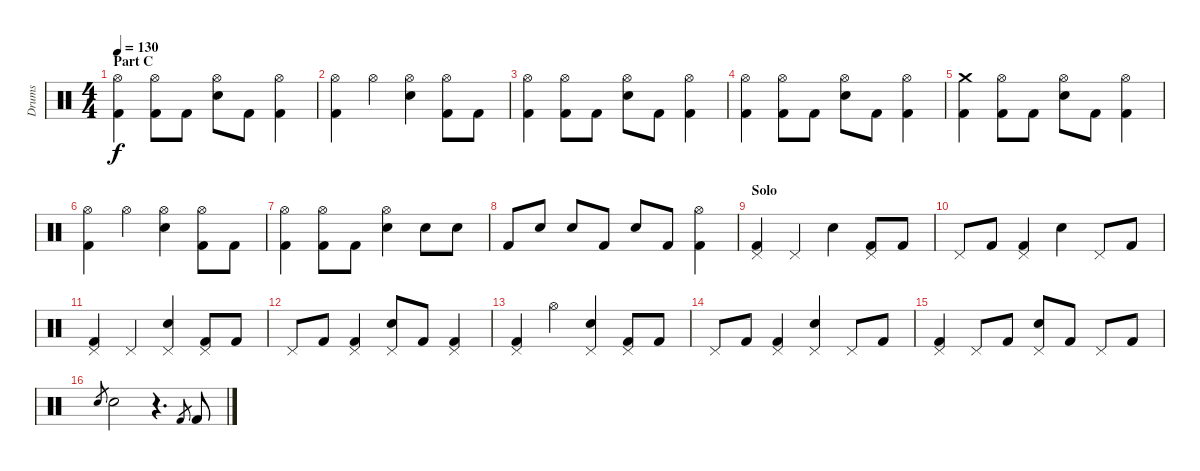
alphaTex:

\track ("Drums" "Drums") {instrument percussion}
\staff {score}
\articulation defaults
\ts (4 4)
\section ("" "Part C")
\tempo 130
\clef neutral
\ks c
("Hi-Hat (open)" "Kick (hit) 2").4{dy f} ("Hi-Hat (open)" "Kick (hit) 2").8 "Kick (hit) 2".8 ("Hi-Hat (open)" "Electric Snare (hit)").8 "Kick (hit) 2".8 ("Hi-Hat (open)" "Kick (hit) 2").4 |
("Hi-Hat (open)" "Kick (hit) 2").4 "Hi-Hat (open)".4 ("Hi-Hat (open)" "Electric Snare (hit)").4 ("Hi-Hat (open)" "Kick (hit) 2").8 "Kick (hit) 2".8 |
("Hi-Hat (open)" "Kick (hit) 2").4 ("Hi-Hat (open)" "Kick (hit) 2").8 "Kick (hit) 2".8 ("Hi-Hat (open)" "Electric Snare (hit)").8 "Kick (hit) 2".8 ("Hi-Hat (open)" "Kick (hit) 2").4 |
("Hi-Hat (open)" "Kick (hit) 2").4 ("Hi-Hat (open)" "Kick (hit) 2").8 "Kick (hit) 2".8 ("Hi-Hat (open)" "Electric Snare (hit)").8 "Kick (hit) 2".8 ("Hi-Hat (open)" "Kick (hit) 2").4 |
("Crash medium (hit)" "Kick (hit) 2").4 ("Hi-Hat (open)" "Kick (hit) 2").8 "Kick (hit) 2".8 ("Hi-Hat (open)" "Electric Snare (hit)").8 "Kick (hit) 2".8 ("Hi-Hat (open)" "Kick (hit) 2").4 |
("Hi-Hat (open)" "Kick (hit) 2").4 "Hi-Hat (open)".4 ("Hi-Hat (open)" "Electric Snare (hit)").4 ("Hi-Hat (open)" "Kick (hit) 2").8 "Kick (hit) 2".8 |
("Hi-Hat (open)" "Kick (hit) 2").4 ("Hi-Hat (open)" "Kick (hit) 2").8 "Kick (hit) 2".8 ("Hi-Hat (open)" "Electric Snare (hit)").4 "Electric Snare (hit)".8 "Electric Snare (hit)".8 |
"Kick (hit) 2".8 "Electric Snare (hit)".8 "Electric Snare (hit)".8 "Kick (hit) 2".8 "Electric Snare (hit)".8 "Kick (hit) 2".8 ("Hi-Hat (open)" "Kick (hit) 2").4 |
\section ("" "Solo")
("Pedal Hi-Hat (hit)" "Kick (hit) 2").4 "Pedal Hi-Hat (hit)".4 "Electric Snare (hit)".4 ("Pedal Hi-Hat (hit)" "Kick (hit) 2").8 "Kick (hit) 2".8 |
"Pedal Hi-Hat (hit)".8 "Kick (hit) 2".8 ("Pedal Hi-Hat (hit)" "Kick (hit) 2").4 "Electric Snare (hit)".4 "Pedal Hi-Hat (hit)".8 "Kick (hit) 2".8 |
("Pedal Hi-Hat (hit)" "Kick (hit) 2").4 "Pedal Hi-Hat (hit)".4 ("Pedal Hi-Hat (hit)" "Electric Snare (hit)").4 ("Pedal Hi-Hat (hit)" "Kick (hit) 2").8 "Kick (hit) 2".8 |
"Pedal Hi-Hat (hit)".8 "Kick (hit) 2".8 ("Pedal Hi-Hat (hit)" "Kick (hit) 2").4 ("Pedal Hi-Hat (hit)" "Electric Snare (hit)").8 "Kick (hit) 2".8 ("Pedal Hi-Hat (hit)" "Kick (hit) 2").4 |
("Pedal Hi-Hat (hit)" "Kick (hit) 2").4 "Hi-Hat (open)".4 ("Pedal Hi-Hat (hit)" "Electric Snare (hit)").4 ("Pedal Hi-Hat (hit)" "Kick (hit) 2").8 "Kick (hit) 2".8 |
"Pedal Hi-Hat (hit)".8 "Kick (hit) 2".8 ("Pedal Hi-Hat (hit)" "Kick (hit) 2").4 ("Pedal Hi-Hat (hit)" "Electric Snare (hit)").4 "Pedal Hi-Hat (hit)".8 "Kick (hit) 2".8 |
("Pedal Hi-Hat (hit)" "Kick (hit) 2").4 "Pedal Hi-Hat (hit)".8 "Kick (hit) 2".8 ("Pedal Hi-Hat (hit)" "Electric Snare (hit)").8 "Kick (hit) 2".8 "Pedal Hi-Hat (hit)".8 "Kick (hit) 2".8 |
"Electric Snare (hit)".8{gr} "Electric Snare (hit)".2 r.4{d} "Kick (hit) 2".8{gr} "Kick (hit) 2".8
